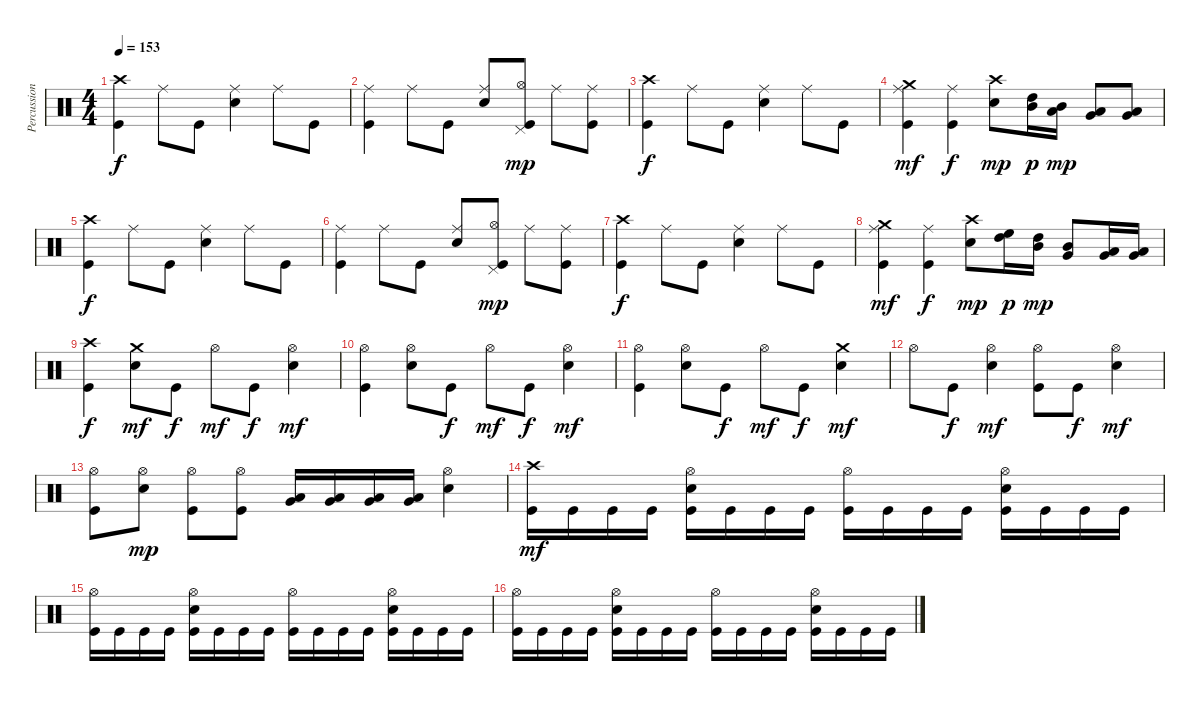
\track ("Percussions" "Percussion") {instrument percussion}
\staff {score}
\articulation defaults
\ts (4 4)
\tempo 153
\clef neutral
\ks c
("Kick (hit)" "Crash high (hit)").4{dy f} "Ride (middle)".8 "Kick (hit)".8 ("Electric Snare (hit)" "Ride (middle)").4 "Ride (middle)".8 "Kick (hit)".8 |
("Kick (hit)" "Ride (middle)").4 "Ride (middle)".8 "Kick (hit)".8 ("Electric Snare (hit)" "Ride (middle)").8 ("Kick (hit)" "Hi-Hat (open)" "Pedal Hi-Hat (hit)").8{dy mp} "Ride (middle)".8 ("Kick (hit)" "Ride (middle)").8 |
("Kick (hit)" "Crash high (hit)").4{dy f} "Ride (middle)".8 "Kick (hit)".8 ("Electric Snare (hit)" "Ride (middle)").4 "Ride (middle)".8 "Kick (hit)".8 |
("Kick (hit)" "Ride (middle)" "Crash medium (hit)").4{dy mf} ("Kick (hit)" "Ride (middle)").4{dy f} ("Electric Snare (hit)" "Crash high (hit)").8{dy mp} ("High Tom (hit)" "Mid Tom (hit)").16{dy p} ("Mid Tom (hit)" "Low Tom (hit)").16{dy mp} ("Low Tom (hit)" "Very Low Tom (hit)").8 ("Very Low Tom (hit)" "Low Floor Tom (hit)").8 |
("Kick (hit)" "Crash high (hit)").4{dy f} "Ride (middle)".8 "Kick (hit)".8 ("Electric Snare (hit)" "Ride (middle)").4 "Ride (middle)".8 "Kick (hit)".8 |
("Kick (hit)" "Ride (middle)").4 "Ride (middle)".8 "Kick (hit)".8 ("Electric Snare (hit)" "Ride (middle)").8 ("Kick (hit)" "Hi-Hat (open)" "Pedal Hi-Hat (hit)").8{dy mp} "Ride (middle)".8 ("Kick (hit)" "Ride (middle)").8 |
("Kick (hit)" "Crash high (hit)").4{dy f} "Ride (middle)".8 "Kick (hit)".8 ("Electric Snare (hit)" "Ride (middle)").4 "Ride (middle)".8 "Kick (hit)".8 |
("Kick (hit)" "Ride (middle)" "Crash medium (hit)").4{dy mf} ("Kick (hit)" "Ride (middle)").4{dy f} ("Electric Snare (hit)" "Crash high (hit)").8{dy mp} ("High Floor Tom (hit)" "High Tom (hit)").16{dy p} ("High Tom (hit)" "Mid Tom (hit)").16{dy mp} ("Mid Tom (hit)" "Very Low Tom (hit)").8 ("Low Tom (hit)" "Very Low Tom (hit)").16 ("Very Low Tom (hit)" "Low Floor Tom (hit)").16 |
("Kick (hit)" "Crash high (hit)").4{dy f} ("Electric Snare (hit)" "Crash medium (hit)").8{dy mf} "Kick (hit)".8{dy f} "Hi-Hat (open)".8{dy mf} "Kick (hit)".8{dy f} ("Electric Snare (hit)" "Hi-Hat (open)").4{dy mf} |
("Kick (hit)" "Hi-Hat (open)").4 ("Electric Snare (hit)" "Hi-Hat (open)").8 "Kick (hit)".8{dy f} "Hi-Hat (open)".8{dy mf} "Kick (hit)".8{dy f} ("Electric Snare (hit)" "Hi-Hat (open)").4{dy mf} |
("Kick (hit)" "Hi-Hat (open)").4 ("Electric Snare (hit)" "Hi-Hat (open)").8 "Kick (hit)".8{dy f} "Hi-Hat (open)".8{dy mf} "Kick (hit)".8{dy f} ("Electric Snare (hit)" "Crash medium (hit)").4{dy mf} |
"Hi-Hat (open)".8 "Kick (hit)".8{dy f} ("Electric Snare (hit)" "Hi-Hat (open)").4{dy mf} ("Kick (hit)" "Hi-Hat (open)").8 "Kick (hit)".8{dy f} ("Electric Snare (hit)" "Hi-Hat (open)").4{dy mf} |
("Kick (hit)" "Hi-Hat (open)").8 ("Electric Snare (hit)" "Hi-Hat (open)").8{dy mp} ("Kick (hit)" "Hi-Hat (open)").8 ("Kick (hit)" "Hi-Hat (open)").8 ("Very Low Tom (hit)" "Low Tom (hit)").16 ("Very Low Tom (hit)" "Low Tom (hit)").16 ("Low Floor Tom (hit)" "Very Low Tom (hit)").16 ("Low Floor Tom (hit)" "Very Low Tom (hit)").16 ("Electric Snare (hit)" "Hi-Hat (open)").4 |
("Kick (hit)" "Crash high (hit)").16{dy mf} "Kick (hit)".16 "Kick (hit)".16 "Kick (hit)".16 ("Kick (hit)" "Electric Snare (hit)" "Hi-Hat (open)").16 "Kick (hit)".16 "Kick (hit)".16 "Kick (hit)".16 ("Kick (hit)" "Hi-Hat (open)").16 "Kick (hit)".16 "Kick (hit)".16 "Kick (hit)".16 ("Kick (hit)" "Electric Snare (hit)" "Hi-Hat (open)").16 "Kick (hit)".16 "Kick (hit)".16 "Kick (hit)".16 |
("Kick (hit)" "Hi-Hat (open)").16 "Kick (hit)".16 "Kick (hit)".16 "Kick (hit)".16 ("Kick (hit)" "Electric Snare (hit)" "Hi-Hat (open)").16 "Kick (hit)".16 "Kick (hit)".16 "Kick (hit)".16 ("Kick (hit)" "Hi-Hat (open)").16 "Kick (hit)".16 "Kick (hit)".16 "Kick (hit)".16 ("Kick (hit)" "Electric Snare (hit)" "Hi-Hat (open)").16 "Kick (hit)".16 "Kick (hit)".16 "Kick (hit)".16 |
("Kick (hit)" "Hi-Hat (open)").16 "Kick (hit)".16 "Kick (hit)".16 "Kick (hit)".16 ("Kick (hit)" "Electric Snare (hit)" "Hi-Hat (open)").16 "Kick (hit)".16 "Kick (hit)".16 "Kick (hit)".16 ("Kick (hit)" "Hi-Hat (open)").16 "Kick (hit)".16 "Kick (hit)".16 "Kick (hit)".16 ("Kick (hit)" "Electric Snare (hit)" "Hi-Hat (open)").16 "Kick (hit)".16 "Kick (hit)".16 "Kick (hit)".16
